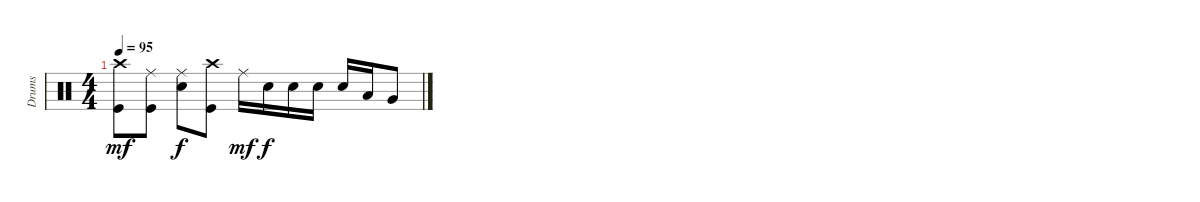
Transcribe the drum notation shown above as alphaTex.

\track ("Drums" "Drums") {instrument percussion}
\staff {score}
\articulation defaults
\ts (4 4)
\tempo 95
\clef neutral
\ks c
("Crash high (hit)" "Kick (hit)").8{dy mf} ("Ride (middle)" "Kick (hit)").8 ("Ride (middle)" "Snare (hit) 2").8{dy f} ("Crash high (hit)" "Kick (hit)").8 "Ride (middle)".16{dy mf} "Snare (hit) 2".16{dy f} "Snare (hit) 2".16 "Snare (hit) 2".16 "Snare (hit) 2".16 "Low Tom (hit)".16 "Very Low Tom (hit)".8
